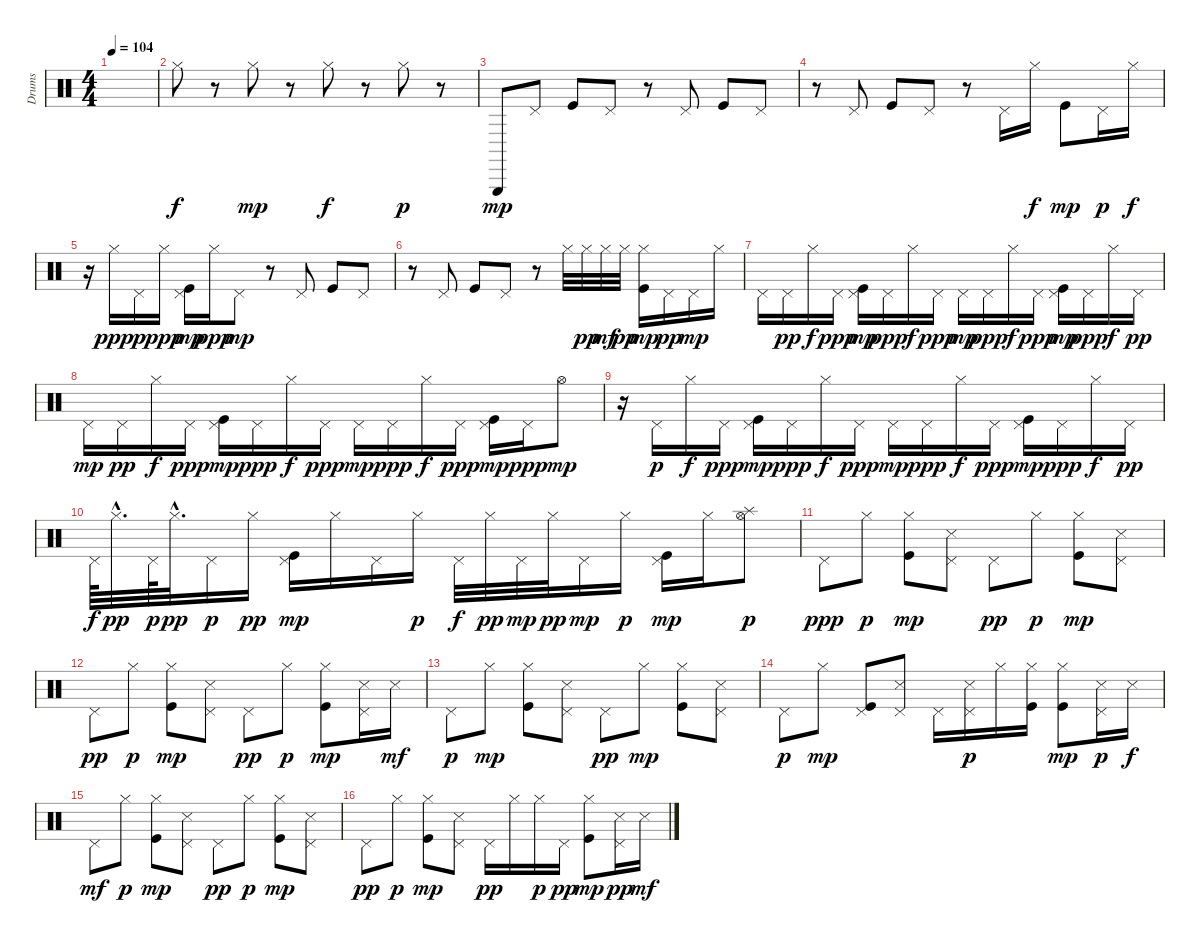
\track ("Drums" "Drums") {instrument percussion}
\staff {score}
\articulation defaults
\ts (4 4)
\tempo 104
\clef neutral
\ks c
|
"Hi-Hat (closed)".8 r.8 "Hi-Hat (closed)".8{dy mp} r.8 "Hi-Hat (closed)".8{dy f} r.8 "Hi-Hat (closed)".8{dy p} r.8 |
"Triangle (hit)".8{dy mp} "Pedal Hi-Hat (hit)".8 "Kick (hit)".8 "Pedal Hi-Hat (hit)".8 r.8 "Pedal Hi-Hat (hit)".8 "Kick (hit)".8 "Pedal Hi-Hat (hit)".8 |
r.8 "Pedal Hi-Hat (hit)".8 "Kick (hit)".8 "Pedal Hi-Hat (hit)".8 r.8 "Pedal Hi-Hat (hit)".16 "Hi-Hat (closed)".16{dy f} "Kick (hit)".8{dy mp} "Pedal Hi-Hat (hit)".16{dy p} "Hi-Hat (closed)".16{dy f} |
r.16 "Hi-Hat (closed)".16{dy ppp} "Pedal Hi-Hat (hit)".16{dy p} "Hi-Hat (closed)".16{dy ppp} ("Pedal Hi-Hat (hit)" "Kick (hit)").16{dy mp} "Hi-Hat (closed)".16{dy ppp} "Pedal Hi-Hat (hit)".8{dy mp} r.8 "Pedal Hi-Hat (hit)".8 "Kick (hit)".8 "Pedal Hi-Hat (hit)".8 |
r.8 "Pedal Hi-Hat (hit)".8 "Kick (hit)".8 "Pedal Hi-Hat (hit)".8 r.8 "Hi-Hat (closed)".32 "Hi-Hat (closed)".32{dy pp} "Hi-Hat (closed)".32{dy mf} "Hi-Hat (closed)".32{dy pp} ("Hi-Hat (closed)" "Kick (hit)").16{dy mp} "Pedal Hi-Hat (hit)".16{dy pp} "Pedal Hi-Hat (hit)".16{dy mp} "Hi-Hat (closed)".16 |
"Pedal Hi-Hat (hit)".16 "Pedal Hi-Hat (hit)".16{dy pp} "Hi-Hat (closed)".16{dy f} "Pedal Hi-Hat (hit)".16{dy ppp} ("Pedal Hi-Hat (hit)" "Kick (hit)").16{dy mp} "Pedal Hi-Hat (hit)".16{dy ppp} "Hi-Hat (closed)".16{dy f} "Pedal Hi-Hat (hit)".16{dy ppp} "Pedal Hi-Hat (hit)".16{dy mp} "Pedal Hi-Hat (hit)".16{dy ppp} "Hi-Hat (closed)".16{dy f} "Pedal Hi-Hat (hit)".16{dy ppp} ("Pedal Hi-Hat (hit)" "Kick (hit)").16{dy mp} "Pedal Hi-Hat (hit)".16{dy ppp} "Hi-Hat (closed)".16{dy f} "Pedal Hi-Hat (hit)".16{dy pp} |
"Pedal Hi-Hat (hit)".16{dy mp} "Pedal Hi-Hat (hit)".16{dy pp} "Hi-Hat (closed)".16{dy f} "Pedal Hi-Hat (hit)".16{dy ppp} ("Pedal Hi-Hat (hit)" "Kick (hit)").16{dy mp} "Pedal Hi-Hat (hit)".16{dy ppp} "Hi-Hat (closed)".16{dy f} "Pedal Hi-Hat (hit)".16{dy ppp} "Pedal Hi-Hat (hit)".16{dy mp} "Pedal Hi-Hat (hit)".16{dy ppp} "Hi-Hat (closed)".16{dy f} "Pedal Hi-Hat (hit)".16{dy ppp} ("Pedal Hi-Hat (hit)" "Kick (hit)").16{dy mp} "Pedal Hi-Hat (hit)".16{dy ppp} "Hi-Hat (open)".8{dy mp} |
r.16 "Pedal Hi-Hat (hit)".16{dy p} "Hi-Hat (closed)".16{dy f} "Pedal Hi-Hat (hit)".16{dy ppp} ("Pedal Hi-Hat (hit)" "Kick (hit)").16{dy mp} "Pedal Hi-Hat (hit)".16{dy ppp} "Hi-Hat (closed)".16{dy f} "Pedal Hi-Hat (hit)".16{dy ppp} "Pedal Hi-Hat (hit)".16{dy mp} "Pedal Hi-Hat (hit)".16{dy ppp} "Hi-Hat (closed)".16{dy f} "Pedal Hi-Hat (hit)".16{dy ppp} ("Pedal Hi-Hat (hit)" "Kick (hit)").16{dy mp} "Pedal Hi-Hat (hit)".16{dy ppp} "Hi-Hat (closed)".16{dy f} "Pedal Hi-Hat (hit)".16{dy pp} |
"Pedal Hi-Hat (hit)".64{dy f} "Hi-Hat (closed)"{hac}.32{d dy pp} "Pedal Hi-Hat (hit)".64{dy p} "Hi-Hat (closed)"{hac}.32{d dy pp} "Pedal Hi-Hat (hit)".16{dy p} "Hi-Hat (closed)".16{dy pp} ("Pedal Hi-Hat (hit)" "Kick (hit)").16{dy mp} "Hi-Hat (closed)".16 "Pedal Hi-Hat (hit)".16 "Hi-Hat (closed)".16{dy p} "Pedal Hi-Hat (hit)".32{dy f} "Hi-Hat (closed)".32{dy pp} "Pedal Hi-Hat (hit)".32{dy mp} "Hi-Hat (closed)".32{dy pp} "Pedal Hi-Hat (hit)".16{dy mp} "Hi-Hat (closed)".16{dy p} ("Pedal Hi-Hat (hit)" "Kick (hit)").16{dy mp} "Hi-Hat (closed)".16 ("Hi-Hat (open)" "Splash (hit)").8{dy p} |
"Pedal Hi-Hat (hit)".8{dy ppp} "Hi-Hat (closed)".8{dy p} ("Hi-Hat (closed)" "Kick (hit)").8{dy mp} ("Pedal Hi-Hat (hit)" "Snare (side stick) 3").8 "Pedal Hi-Hat (hit)".8{dy pp} "Hi-Hat (closed)".8{dy p} ("Hi-Hat (closed)" "Kick (hit)").8{dy mp} ("Pedal Hi-Hat (hit)" "Snare (side stick) 3").8 |
"Pedal Hi-Hat (hit)".8{dy pp} "Hi-Hat (closed)".8{dy p} ("Hi-Hat (closed)" "Kick (hit)").8{dy mp} ("Pedal Hi-Hat (hit)" "Snare (side stick) 3").8 "Pedal Hi-Hat (hit)".8{dy pp} "Hi-Hat (closed)".8{dy p} ("Hi-Hat (closed)" "Kick (hit)").8{dy mp} ("Pedal Hi-Hat (hit)" "Snare (side stick) 3").16 "Snare (side stick) 3".16{dy mf} |
"Pedal Hi-Hat (hit)".8{dy p} "Hi-Hat (closed)".8{dy mp} ("Hi-Hat (closed)" "Kick (hit)").8 ("Pedal Hi-Hat (hit)" "Snare (side stick) 3").8 "Pedal Hi-Hat (hit)".8{dy pp} "Hi-Hat (closed)".8{dy mp} ("Hi-Hat (closed)" "Kick (hit)").8 ("Pedal Hi-Hat (hit)" "Snare (side stick) 3").8 |
"Pedal Hi-Hat (hit)".8{dy p} "Hi-Hat (closed)".8{dy mp} ("Pedal Hi-Hat (hit)" "Kick (hit)").8 ("Pedal Hi-Hat (hit)" "Snare (side stick) 3").8 "Pedal Hi-Hat (hit)".16 ("Pedal Hi-Hat (hit)" "Snare (side stick) 3").16{dy p} "Hi-Hat (closed)".16 ("Hi-Hat (closed)" "Kick (hit)").16 ("Hi-Hat (closed)" "Kick (hit)").8{dy mp} ("Pedal Hi-Hat (hit)" "Snare (side stick) 3").16{dy p} "Snare (side stick) 3".16{dy f} |
"Pedal Hi-Hat (hit)".8{dy mf} "Hi-Hat (closed)".8{dy p} ("Hi-Hat (closed)" "Kick (hit)").8{dy mp} ("Pedal Hi-Hat (hit)" "Snare (side stick) 3").8 "Pedal Hi-Hat (hit)".8{dy pp} "Hi-Hat (closed)".8{dy p} ("Hi-Hat (closed)" "Kick (hit)").8{dy mp} ("Pedal Hi-Hat (hit)" "Snare (side stick) 3").8 |
"Pedal Hi-Hat (hit)".8{dy pp} "Hi-Hat (closed)".8{dy p} ("Hi-Hat (closed)" "Kick (hit)").8{dy mp} ("Pedal Hi-Hat (hit)" "Snare (side stick) 3").8 "Pedal Hi-Hat (hit)".16{dy pp} "Hi-Hat (closed)".16 "Hi-Hat (closed)".16{dy p} "Pedal Hi-Hat (hit)".16{dy pp} ("Hi-Hat (closed)" "Kick (hit)").8{dy mp} ("Pedal Hi-Hat (hit)" "Snare (side stick) 3").16{dy pp} "Snare (side stick) 3".16{dy mf}
